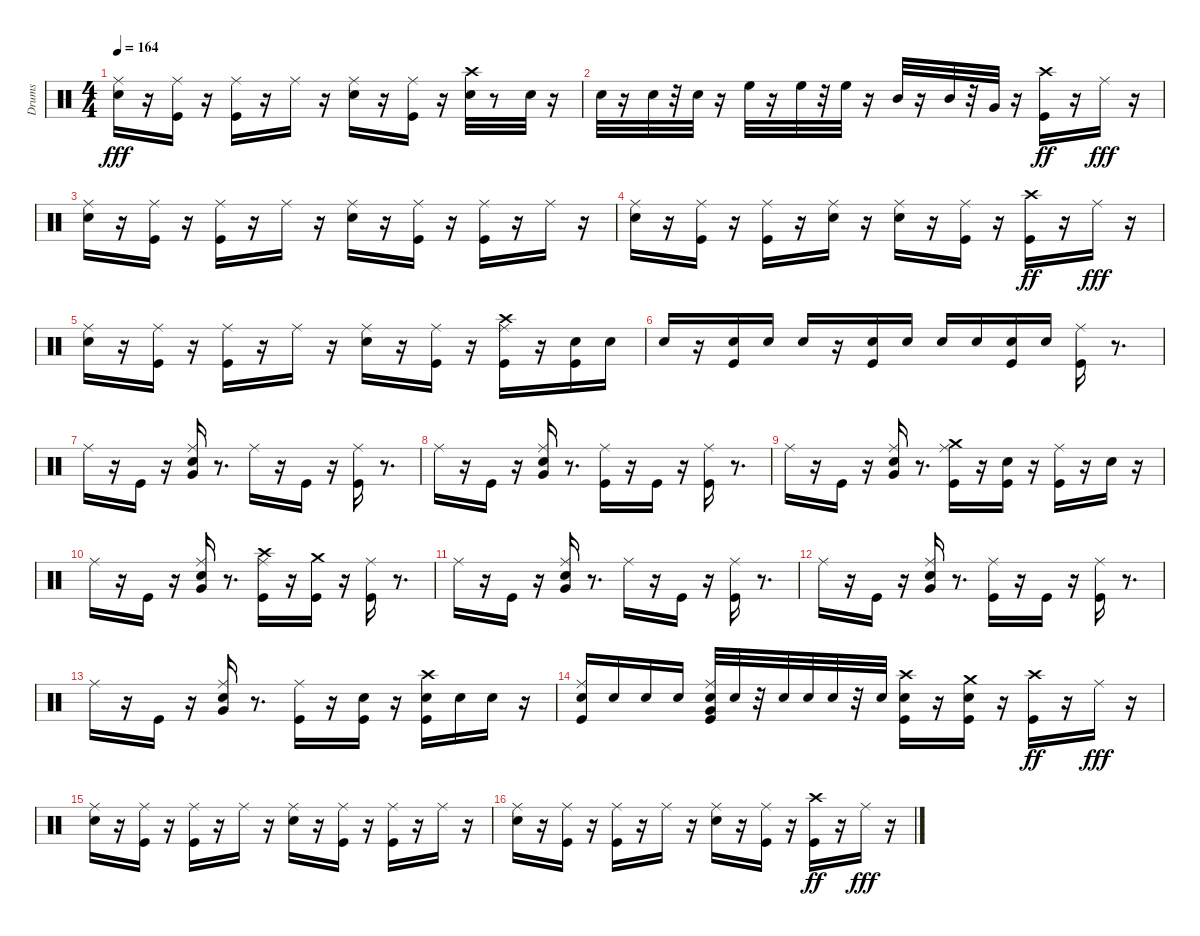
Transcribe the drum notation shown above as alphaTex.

\track ("Drums" "Drums") {instrument percussion}
\staff {score}
\articulation defaults
\ts (4 4)
\tempo 164
\clef neutral
\ks c
("Electric Snare (hit)" "Ride (middle)").16{dy fff} r.16 ("Kick (hit)" "Ride (middle)").16 r.16 ("Kick (hit)" "Ride (middle)").16 r.16 "Ride (middle)".16 r.16 ("Electric Snare (hit)" "Ride (middle)").16 r.16 ("Kick (hit)" "Ride (middle)").16 r.16 ("Electric Snare (hit)" "Crash high (hit)").32 r.8 "Electric Snare (hit)".32 r.16 |
"Electric Snare (hit)".32 r.16 "Electric Snare (hit)".32 r.32 "Electric Snare (hit)".32 r.16 "High Floor Tom (hit)".32 r.16 "High Floor Tom (hit)".32 r.32 "High Floor Tom (hit)".32 r.16 "Mid Tom (hit)".32 r.16 "Mid Tom (hit)".32 r.32 "Very Low Tom (hit)".32 r.16 ("Kick (hit)" "Crash high (hit)").16{dy ff} r.16 "Ride (middle)".16{dy fff} r.16 |
("Electric Snare (hit)" "Ride (middle)").16 r.16 ("Kick (hit)" "Ride (middle)").16 r.16 ("Kick (hit)" "Ride (middle)").16 r.16 "Ride (middle)".16 r.16 ("Electric Snare (hit)" "Ride (middle)").16 r.16 ("Kick (hit)" "Ride (middle)").16 r.16 ("Kick (hit)" "Ride (middle)").16 r.16 "Ride (middle)".16 r.16 |
("Electric Snare (hit)" "Ride (middle)").16 r.16 ("Kick (hit)" "Ride (middle)").16 r.16 ("Kick (hit)" "Ride (middle)").16 r.16 ("Ride (middle)" "Electric Snare (hit)").16 r.16 ("Ride (middle)" "Electric Snare (hit)").16 r.16 ("Kick (hit)" "Ride (middle)").16 r.16 ("Kick (hit)" "Crash high (hit)").16{dy ff} r.16 "Ride (middle)".16{dy fff} r.16 |
("Electric Snare (hit)" "Ride (middle)").16 r.16 ("Kick (hit)" "Ride (middle)").16 r.16 ("Kick (hit)" "Ride (middle)").16 r.16 "Ride (middle)".16 r.16 ("Electric Snare (hit)" "Ride (middle)").16 r.16 ("Kick (hit)" "Ride (middle)").16 r.16 ("Kick (hit)" "Ride (middle)" "Crash high (hit)").16 r.16 ("Electric Snare (hit)" "Kick (hit)").16 "Electric Snare (hit)".16 |
"Electric Snare (hit)".16 r.16 ("Electric Snare (hit)" "Kick (hit)").16 "Electric Snare (hit)".16 "Electric Snare (hit)".16 r.16 ("Electric Snare (hit)" "Kick (hit)").16 "Electric Snare (hit)".16 "Electric Snare (hit)".16 "Electric Snare (hit)".16 ("Kick (hit)" "Electric Snare (hit)").16 "Electric Snare (hit)".16 ("Ride (middle)" "Kick (hit)").16 r.8{d} |
"Ride (middle)".16 r.16 "Kick (hit)".16 r.16 ("Electric Snare (hit)" "Very Low Tom (hit)" "Ride (middle)").16 r.8{d} "Ride (middle)".16 r.16 "Kick (hit)".16 r.16 ("Ride (middle)" "Kick (hit)").16 r.8{d} |
"Ride (middle)".16 r.16 "Kick (hit)".16 r.16 ("Electric Snare (hit)" "Very Low Tom (hit)" "Ride (middle)").16 r.8{d} ("Ride (middle)" "Kick (hit)").16 r.16 "Kick (hit)".16 r.16 ("Ride (middle)" "Kick (hit)").16 r.8{d} |
"Ride (middle)".16 r.16 "Kick (hit)".16 r.16 ("Electric Snare (hit)" "Very Low Tom (hit)" "Ride (middle)").16 r.8{d} ("Ride (middle)" "Crash medium (hit)" "Kick (hit)").16 r.16 ("Kick (hit)" "Electric Snare (hit)").16 r.16 ("Ride (middle)" "Kick (hit)").16 r.16 "Electric Snare (hit)".16 r.16 |
"Ride (middle)".16 r.16 "Kick (hit)".16 r.16 ("Electric Snare (hit)" "Very Low Tom (hit)" "Ride (middle)").16 r.8{d} ("Ride (middle)" "Kick (hit)" "Crash high (hit)").16 r.16 ("Kick (hit)" "Crash medium (hit)").16 r.16 ("Ride (middle)" "Kick (hit)").16 r.8{d} |
"Ride (middle)".16 r.16 "Kick (hit)".16 r.16 ("Electric Snare (hit)" "Very Low Tom (hit)" "Ride (middle)").16 r.8{d} "Ride (middle)".16 r.16 "Kick (hit)".16 r.16 ("Ride (middle)" "Kick (hit)").16 r.8{d} |
"Ride (middle)".16 r.16 "Kick (hit)".16 r.16 ("Electric Snare (hit)" "Very Low Tom (hit)" "Ride (middle)").16 r.8{d} ("Ride (middle)" "Kick (hit)").16 r.16 "Kick (hit)".16 r.16 ("Ride (middle)" "Kick (hit)").16 r.8{d} |
"Ride (middle)".16 r.16 "Kick (hit)".16 r.16 ("Electric Snare (hit)" "Very Low Tom (hit)" "Ride (middle)").16 r.8{d} ("Ride (middle)" "Kick (hit)").16 r.16 ("Kick (hit)" "Electric Snare (hit)").16 r.16 ("Kick (hit)" "Electric Snare (hit)" "Crash high (hit)").16 "Electric Snare (hit)".16 "Electric Snare (hit)".16 r.16 |
("Ride (middle)" "Electric Snare (hit)" "Kick (hit)").16 "Electric Snare (hit)".16 "Electric Snare (hit)".16 "Electric Snare (hit)".16 ("Very Low Tom (hit)" "Ride (middle)" "Electric Snare (hit)" "Kick (hit)").32 "Electric Snare (hit)".32 r.32 "Electric Snare (hit)".32 "Electric Snare (hit)".32 "Electric Snare (hit)".32 r.32 "Electric Snare (hit)".32 ("Kick (hit)" "Electric Snare (hit)" "Crash high (hit)").16 r.16 ("Kick (hit)" "Crash medium (hit)" "Electric Snare (hit)").16 r.16 ("Kick (hit)" "Crash high (hit)").16{dy ff} r.16 "Ride (middle)".16{dy fff} r.16 |
("Electric Snare (hit)" "Ride (middle)").16 r.16 ("Kick (hit)" "Ride (middle)").16 r.16 ("Kick (hit)" "Ride (middle)").16 r.16 "Ride (middle)".16 r.16 ("Electric Snare (hit)" "Ride (middle)").16 r.16 ("Kick (hit)" "Ride (middle)").16 r.16 ("Kick (hit)" "Ride (middle)").16 r.16 "Ride (middle)".16 r.16 |
("Electric Snare (hit)" "Ride (middle)").16 r.16 ("Kick (hit)" "Ride (middle)").16 r.16 ("Kick (hit)" "Ride (middle)").16 r.16 "Ride (middle)".16 r.16 ("Ride (middle)" "Electric Snare (hit)").16 r.16 ("Kick (hit)" "Ride (middle)").16 r.16 ("Kick (hit)" "Crash high (hit)").16{dy ff} r.16 "Ride (middle)".16{dy fff} r.16
